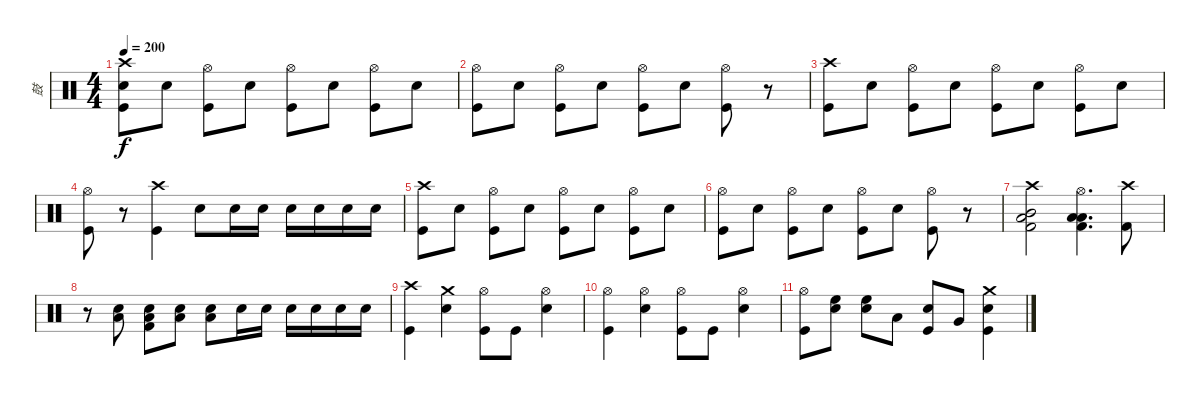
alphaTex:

\track ("鼓" "鼓") {instrument percussion}
\staff {score}
\articulation defaults
\ts (4 4)
\tempo 200
\clef neutral
\ks c
("Crash high (hit)" "Snare (hit) 2" "Kick (hit)").8{dy f} "Snare (hit) 2".8 ("Hi-Hat (open)" "Kick (hit)").8 "Snare (hit) 2".8 ("Hi-Hat (open)" "Kick (hit)").8 "Snare (hit) 2".8 ("Hi-Hat (open)" "Kick (hit)").8 "Snare (hit) 2".8 |
("Hi-Hat (open)" "Kick (hit)").8 "Snare (hit) 2".8 ("Hi-Hat (open)" "Kick (hit)").8 "Snare (hit) 2".8 ("Hi-Hat (open)" "Kick (hit)").8 "Snare (hit) 2".8 ("Hi-Hat (open)" "Kick (hit)").8 r.8 |
("Crash high (hit)" "Kick (hit)").8 "Snare (hit) 2".8 ("Hi-Hat (open)" "Kick (hit)").8 "Snare (hit) 2".8 ("Hi-Hat (open)" "Kick (hit)").8 "Snare (hit) 2".8 ("Hi-Hat (open)" "Kick (hit)").8 "Snare (hit) 2".8 |
("Hi-Hat (open)" "Kick (hit)").8 r.8 ("Crash high (hit)" "Kick (hit)").4 "Snare (hit) 2".8 "Snare (hit) 2".16 "Snare (hit) 2".16 "Snare (hit) 2".16 "Snare (hit) 2".16 "Snare (hit) 2".16 "Snare (hit) 2".16 |
("Crash high (hit)" "Kick (hit)").8 "Snare (hit) 2".8 ("Hi-Hat (open)" "Kick (hit)").8 "Snare (hit) 2".8 ("Hi-Hat (open)" "Kick (hit)").8 "Snare (hit) 2".8 ("Hi-Hat (open)" "Kick (hit)").8 "Snare (hit) 2".8 |
("Hi-Hat (open)" "Kick (hit)").8 "Snare (hit) 2".8 ("Hi-Hat (open)" "Kick (hit)").8 "Snare (hit) 2".8 ("Hi-Hat (open)" "Kick (hit)").8 "Snare (hit) 2".8 ("Hi-Hat (open)" "Kick (hit)").8 r.8 |
("Crash high (hit)" "Mid Tom (hit)" "Low Tom (hit)" "Kick (hit) 2").2 ("Hi-Hat (open)" "Low Tom (hit)" "Low Floor Tom (hit)" "Kick (hit) 2").4{d} ("Crash high (hit)" "Kick (hit) 2").8 |
r.8 ("Snare (hit) 2" "Low Floor Tom (hit)").8 ("Snare (hit) 2" "Low Floor Tom (hit)" "Kick (hit) 2").8 ("Snare (hit) 2" "Low Floor Tom (hit)").8 ("Snare (hit) 2" "Low Floor Tom (hit)").8 "Snare (hit) 2".16 "Snare (hit) 2".16 "Snare (hit) 2".16 "Snare (hit) 2".16 "Snare (hit) 2".16 "Snare (hit) 2".16 |
("Crash high (hit)" "Kick (hit)").4 ("Crash medium (hit)" "Snare (hit) 2").4 ("Hi-Hat (open)" "Kick (hit)").8 "Kick (hit)".8 ("Hi-Hat (open)" "Snare (hit) 2").4 |
("Hi-Hat (open)" "Kick (hit)").4 ("Hi-Hat (open)" "Snare (hit) 2").4 ("Hi-Hat (open)" "Kick (hit)").8 "Kick (hit)".8 ("Hi-Hat (open)" "Snare (hit) 2").4 |
("Hi-Hat (open)" "Kick (hit)").8 ("High Floor Tom (hit)" "Snare (hit) 2").8 ("High Floor Tom (hit)" "Snare (hit) 2").8 "Low Tom (hit)".8 ("Snare (hit) 2" "Kick (hit)").8 "Very Low Tom (hit)".8 ("Crash medium (hit)" "Snare (hit) 2" "Kick (hit)").4
